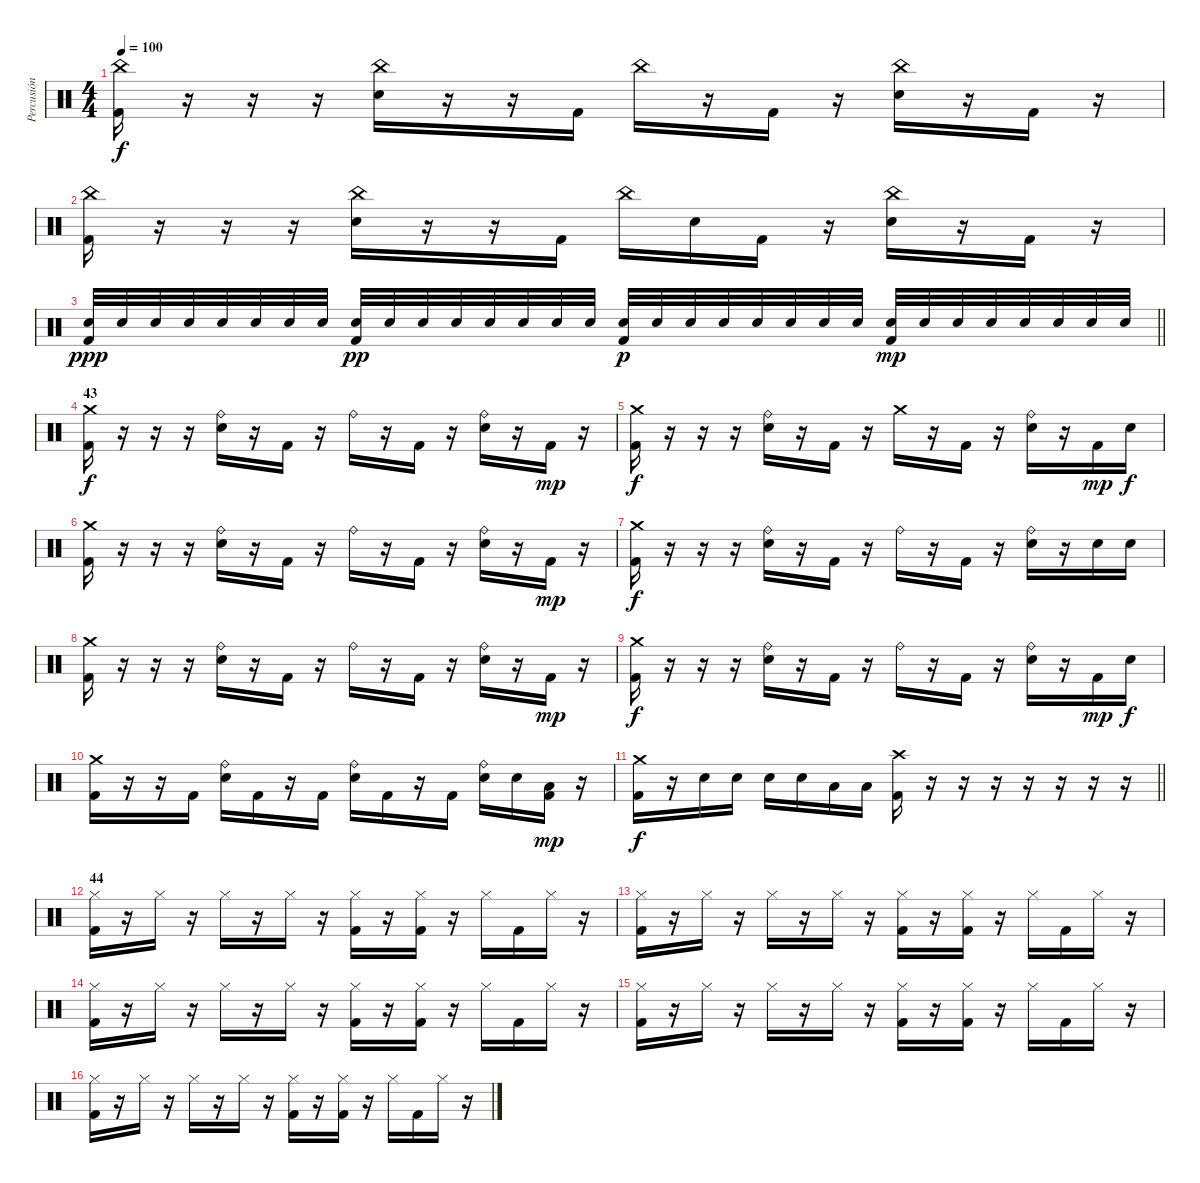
\track ("Percusión" "Percusión") {instrument percussion}
\staff {score}
\articulation defaults
\ts (4 4)
\tempo 100
\clef neutral
\ks c
("China (hit)" "Kick (hit) 2").16{dy f} r.16 r.16 r.16 ("China (hit)" "Electric Snare (hit)").16 r.16 r.16 "Kick (hit) 2".16 "China (hit)".16 r.16 "Kick (hit) 2".16 r.16 ("China (hit)" "Electric Snare (hit)").16 r.16 "Kick (hit) 2".16 r.16 |
("China (hit)" "Kick (hit) 2").16 r.16 r.16 r.16 ("China (hit)" "Electric Snare (hit)").16 r.16 r.16 "Kick (hit) 2".16 "China (hit)".16 "Electric Snare (hit)".16 "Kick (hit) 2".16 r.16 ("China (hit)" "Electric Snare (hit)").16 r.16 "Kick (hit) 2".16 r.16 |
\barLineRight lightlight
("Electric Snare (hit)" "Kick (hit) 2").32{dy ppp} "Electric Snare (hit)".32 "Electric Snare (hit)".32 "Electric Snare (hit)".32 "Electric Snare (hit)".32 "Electric Snare (hit)".32 "Electric Snare (hit)".32 "Electric Snare (hit)".32 ("Electric Snare (hit)" "Kick (hit) 2").32{dy pp} "Electric Snare (hit)".32 "Electric Snare (hit)".32 "Electric Snare (hit)".32 "Electric Snare (hit)".32 "Electric Snare (hit)".32 "Electric Snare (hit)".32 "Electric Snare (hit)".32 ("Electric Snare (hit)" "Kick (hit) 2").32{dy p} "Electric Snare (hit)".32 "Electric Snare (hit)".32 "Electric Snare (hit)".32 "Electric Snare (hit)".32 "Electric Snare (hit)".32 "Electric Snare (hit)".32 "Electric Snare (hit)".32 ("Electric Snare (hit)" "Kick (hit) 2").32{dy mp} "Electric Snare (hit)".32 "Electric Snare (hit)".32 "Electric Snare (hit)".32 "Electric Snare (hit)".32 "Electric Snare (hit)".32 "Electric Snare (hit)".32 "Electric Snare (hit)".32 |
\section ("" "43")
("Crash medium (hit)" "Kick (hit) 2").16{dy f} r.16 r.16 r.16 ("Ride (bell)" "Electric Snare (hit)").16 r.16 "Kick (hit) 2".16 r.16 "Ride (bell)".16 r.16 "Kick (hit) 2".16 r.16 ("Ride (bell)" "Electric Snare (hit)").16 r.16 "Kick (hit) 2".16{dy mp} r.16 |
("Crash medium (hit)" "Kick (hit) 2").16{dy f} r.16 r.16 r.16 ("Ride (bell)" "Electric Snare (hit)").16 r.16 "Kick (hit) 2".16 r.16 "Crash medium (hit)".16 r.16 "Kick (hit) 2".16 r.16 ("Ride (bell)" "Electric Snare (hit)").16 r.16 "Kick (hit) 2".16{dy mp} "Electric Snare (hit)".16{dy f} |
("Crash medium (hit)" "Kick (hit) 2").16 r.16 r.16 r.16 ("Ride (bell)" "Electric Snare (hit)").16 r.16 "Kick (hit) 2".16 r.16 "Ride (bell)".16 r.16 "Kick (hit) 2".16 r.16 ("Ride (bell)" "Electric Snare (hit)").16 r.16 "Kick (hit) 2".16{dy mp} r.16 |
("Crash medium (hit)" "Kick (hit) 2").16{dy f} r.16 r.16 r.16 ("Ride (bell)" "Electric Snare (hit)").16 r.16 "Kick (hit) 2".16 r.16 "Ride (bell)".16 r.16 "Kick (hit) 2".16 r.16 ("Ride (bell)" "Electric Snare (hit)").16 r.16 "Electric Snare (hit)".16 "Electric Snare (hit)".16 |
("Crash medium (hit)" "Kick (hit) 2").16 r.16 r.16 r.16 ("Ride (bell)" "Electric Snare (hit)").16 r.16 "Kick (hit) 2".16 r.16 "Ride (bell)".16 r.16 "Kick (hit) 2".16 r.16 ("Ride (bell)" "Electric Snare (hit)").16 r.16 "Kick (hit) 2".16{dy mp} r.16 |
("Crash medium (hit)" "Kick (hit) 2").16{dy f} r.16 r.16 r.16 ("Ride (bell)" "Electric Snare (hit)").16 r.16 "Kick (hit) 2".16 r.16 "Ride (bell)".16 r.16 "Kick (hit) 2".16 r.16 ("Ride (bell)" "Electric Snare (hit)").16 r.16 "Kick (hit) 2".16{dy mp} "Electric Snare (hit)".16{dy f} |
("Crash medium (hit)" "Kick (hit) 2").16 r.16 r.16 "Kick (hit) 2".16 ("Ride (bell)" "Electric Snare (hit)").16 "Kick (hit) 2".16 r.16 "Kick (hit) 2".16 ("Ride (bell)" "Electric Snare (hit)").16 "Kick (hit) 2".16 r.16 "Kick (hit) 2".16 ("Ride (bell)" "Electric Snare (hit)").16 "Electric Snare (hit)".16 ("Low Tom (hit)" "Kick (hit) 2").16{dy mp} r.16 |
\barLineRight lightlight
("Crash medium (hit)" "Kick (hit) 2").16{dy f} r.16 "Electric Snare (hit)".16 "Electric Snare (hit)".16 "Electric Snare (hit)".16 "Electric Snare (hit)".16 "Low Tom (hit)".16 "Low Tom (hit)".16 ("Crash high (hit)" "Kick (hit) 2").16 r.16 r.16 r.16 r.16 r.16 r.16 r.16 |
\section ("" "44")
("Hi-Hat (closed)" "Kick (hit) 2").16 r.16 "Hi-Hat (closed)".16 r.16 "Hi-Hat (closed)".16 r.16 "Hi-Hat (closed)".16 r.16 ("Hi-Hat (closed)" "Kick (hit) 2").16 r.16 ("Hi-Hat (closed)" "Kick (hit) 2").16 r.16 "Hi-Hat (closed)".16 "Kick (hit) 2".16 "Hi-Hat (closed)".16 r.16 |
("Hi-Hat (closed)" "Kick (hit) 2").16 r.16 "Hi-Hat (closed)".16 r.16 "Hi-Hat (closed)".16 r.16 "Hi-Hat (closed)".16 r.16 ("Hi-Hat (closed)" "Kick (hit) 2").16 r.16 ("Hi-Hat (closed)" "Kick (hit) 2").16 r.16 "Hi-Hat (closed)".16 "Kick (hit) 2".16 "Hi-Hat (closed)".16 r.16 |
("Hi-Hat (closed)" "Kick (hit) 2").16 r.16 "Hi-Hat (closed)".16 r.16 "Hi-Hat (closed)".16 r.16 "Hi-Hat (closed)".16 r.16 ("Hi-Hat (closed)" "Kick (hit) 2").16 r.16 ("Hi-Hat (closed)" "Kick (hit) 2").16 r.16 "Hi-Hat (closed)".16 "Kick (hit) 2".16 "Hi-Hat (closed)".16 r.16 |
("Hi-Hat (closed)" "Kick (hit) 2").16 r.16 "Hi-Hat (closed)".16 r.16 "Hi-Hat (closed)".16 r.16 "Hi-Hat (closed)".16 r.16 ("Hi-Hat (closed)" "Kick (hit) 2").16 r.16 ("Hi-Hat (closed)" "Kick (hit) 2").16 r.16 "Hi-Hat (closed)".16 "Kick (hit) 2".16 "Hi-Hat (closed)".16 r.16 |
("Hi-Hat (closed)" "Kick (hit) 2").16 r.16 "Hi-Hat (closed)".16 r.16 "Hi-Hat (closed)".16 r.16 "Hi-Hat (closed)".16 r.16 ("Hi-Hat (closed)" "Kick (hit) 2").16 r.16 ("Hi-Hat (closed)" "Kick (hit) 2").16 r.16 "Hi-Hat (closed)".16 "Kick (hit) 2".16 "Hi-Hat (closed)".16 r.16
